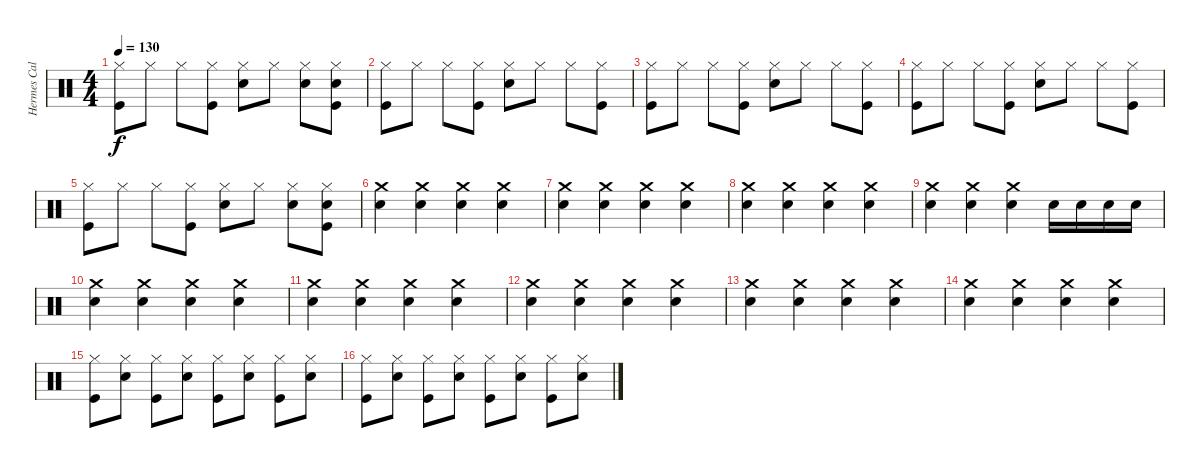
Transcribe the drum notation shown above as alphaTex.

\track ("Hermes Calabria" "Hermes Cal") {instrument percussion}
\staff {score}
\articulation defaults
\ts (4 4)
\tempo 130
\clef neutral
\ks c
("Hi-Hat (closed)" "Kick (hit)").8{dy f} "Hi-Hat (closed)".8 "Hi-Hat (closed)".8 ("Hi-Hat (closed)" "Kick (hit)").8 ("Hi-Hat (closed)" "Snare (hit) 2").8 "Hi-Hat (closed)".8 ("Hi-Hat (closed)" "Snare (hit) 2").8 ("Hi-Hat (closed)" "Snare (hit) 2" "Kick (hit)").8 |
("Hi-Hat (closed)" "Kick (hit)").8 "Hi-Hat (closed)".8 "Hi-Hat (closed)".8 ("Hi-Hat (closed)" "Kick (hit)").8 ("Hi-Hat (closed)" "Snare (hit) 2").8 "Hi-Hat (closed)".8 "Hi-Hat (closed)".8 ("Hi-Hat (closed)" "Kick (hit)").8 |
("Hi-Hat (closed)" "Kick (hit)").8 "Hi-Hat (closed)".8 "Hi-Hat (closed)".8 ("Hi-Hat (closed)" "Kick (hit)").8 ("Hi-Hat (closed)" "Snare (hit) 2").8 "Hi-Hat (closed)".8 "Hi-Hat (closed)".8 ("Hi-Hat (closed)" "Kick (hit)").8 |
("Hi-Hat (closed)" "Kick (hit)").8 "Hi-Hat (closed)".8 "Hi-Hat (closed)".8 ("Hi-Hat (closed)" "Kick (hit)").8 ("Hi-Hat (closed)" "Snare (hit) 2").8 "Hi-Hat (closed)".8 "Hi-Hat (closed)".8 ("Hi-Hat (closed)" "Kick (hit)").8 |
("Hi-Hat (closed)" "Kick (hit)").8 "Hi-Hat (closed)".8 "Hi-Hat (closed)".8 ("Hi-Hat (closed)" "Kick (hit)").8 ("Hi-Hat (closed)" "Snare (hit) 2").8 "Hi-Hat (closed)".8 ("Hi-Hat (closed)" "Snare (hit) 2").8 ("Hi-Hat (closed)" "Snare (hit) 2" "Kick (hit)").8 |
("Crash medium (hit)" "Snare (hit) 2").4 ("Crash medium (hit)" "Snare (hit) 2").4 ("Crash medium (hit)" "Snare (hit) 2").4 ("Crash medium (hit)" "Snare (hit) 2").4 |
("Crash medium (hit)" "Snare (hit) 2").4 ("Crash medium (hit)" "Snare (hit) 2").4 ("Crash medium (hit)" "Snare (hit) 2").4 ("Crash medium (hit)" "Snare (hit) 2").4 |
("Crash medium (hit)" "Snare (hit) 2").4 ("Crash medium (hit)" "Snare (hit) 2").4 ("Crash medium (hit)" "Snare (hit) 2").4 ("Crash medium (hit)" "Snare (hit) 2").4 |
("Crash medium (hit)" "Snare (hit) 2").4 ("Crash medium (hit)" "Snare (hit) 2").4 ("Crash medium (hit)" "Snare (hit) 2").4 "Snare (hit) 2".16 "Snare (hit) 2".16 "Snare (hit) 2".16 "Snare (hit) 2".16 |
("Crash medium (hit)" "Snare (hit) 2").4 ("Crash medium (hit)" "Snare (hit) 2").4 ("Crash medium (hit)" "Snare (hit) 2").4 ("Crash medium (hit)" "Snare (hit) 2").4 |
("Crash medium (hit)" "Snare (hit) 2").4 ("Crash medium (hit)" "Snare (hit) 2").4 ("Crash medium (hit)" "Snare (hit) 2").4 ("Crash medium (hit)" "Snare (hit) 2").4 |
("Crash medium (hit)" "Snare (hit) 2").4 ("Crash medium (hit)" "Snare (hit) 2").4 ("Crash medium (hit)" "Snare (hit) 2").4 ("Crash medium (hit)" "Snare (hit) 2").4 |
("Crash medium (hit)" "Snare (hit) 2").4 ("Crash medium (hit)" "Snare (hit) 2").4 ("Crash medium (hit)" "Snare (hit) 2").4 ("Crash medium (hit)" "Snare (hit) 2").4 |
("Crash medium (hit)" "Snare (hit) 2").4 ("Crash medium (hit)" "Snare (hit) 2").4 ("Crash medium (hit)" "Snare (hit) 2").4 ("Crash medium (hit)" "Snare (hit) 2").4 |
("Hi-Hat (closed)" "Kick (hit)").8 ("Hi-Hat (closed)" "Snare (hit) 2").8 ("Hi-Hat (closed)" "Kick (hit)").8 ("Hi-Hat (closed)" "Snare (hit) 2").8 ("Hi-Hat (closed)" "Kick (hit)").8 ("Hi-Hat (closed)" "Snare (hit) 2").8 ("Hi-Hat (closed)" "Kick (hit)").8 ("Hi-Hat (closed)" "Snare (hit) 2").8 |
("Hi-Hat (closed)" "Kick (hit)").8 ("Hi-Hat (closed)" "Snare (hit) 2").8 ("Hi-Hat (closed)" "Kick (hit)").8 ("Hi-Hat (closed)" "Snare (hit) 2").8 ("Hi-Hat (closed)" "Kick (hit)").8 ("Hi-Hat (closed)" "Snare (hit) 2").8 ("Hi-Hat (closed)" "Kick (hit)").8 ("Hi-Hat (closed)" "Snare (hit) 2").8
